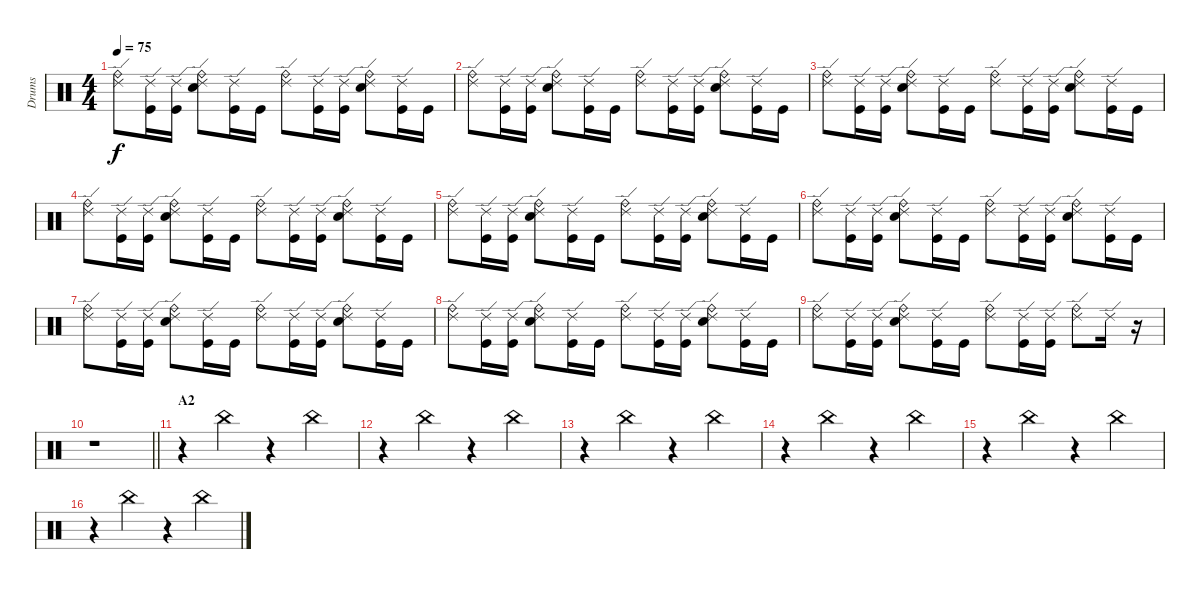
\track ("Drums" "Drums") {instrument percussion}
\staff {score}
\articulation defaults
\ts (4 4)
\tempo 75
\clef neutral
\ks c
("Ride (bell)" "Ride (edge) 2").8{dy f} ("Ride (edge) 2" "Kick (hit)").16 ("Ride (edge) 2" "Kick (hit)").16 ("Ride (bell)" "Ride (edge) 2" "Snare (hit) 2").8 ("Ride (edge) 2" "Kick (hit)").16 "Kick (hit)".16 ("Ride (bell)" "Ride (edge) 2").8 ("Ride (edge) 2" "Kick (hit)").16 ("Ride (edge) 2" "Kick (hit)").16 ("Ride (bell)" "Ride (edge) 2" "Snare (hit) 2").8 ("Ride (edge) 2" "Kick (hit)").16 "Kick (hit)".16 |
("Ride (bell)" "Ride (edge) 2").8 ("Ride (edge) 2" "Kick (hit)").16 ("Ride (edge) 2" "Kick (hit)").16 ("Ride (bell)" "Ride (edge) 2" "Snare (hit) 2").8 ("Ride (edge) 2" "Kick (hit)").16 "Kick (hit)".16 ("Ride (bell)" "Ride (edge) 2").8 ("Ride (edge) 2" "Kick (hit)").16 ("Ride (edge) 2" "Kick (hit)").16 ("Ride (bell)" "Ride (edge) 2" "Snare (hit) 2").8 ("Ride (edge) 2" "Kick (hit)").16 "Kick (hit)".16 |
("Ride (bell)" "Ride (edge) 2").8 ("Ride (edge) 2" "Kick (hit)").16 ("Ride (edge) 2" "Kick (hit)").16 ("Ride (bell)" "Ride (edge) 2" "Snare (hit) 2").8 ("Ride (edge) 2" "Kick (hit)").16 "Kick (hit)".16 ("Ride (bell)" "Ride (edge) 2").8 ("Ride (edge) 2" "Kick (hit)").16 ("Ride (edge) 2" "Kick (hit)").16 ("Ride (bell)" "Ride (edge) 2" "Snare (hit) 2").8 ("Ride (edge) 2" "Kick (hit)").16 "Kick (hit)".16 |
("Ride (bell)" "Ride (edge) 2").8 ("Ride (edge) 2" "Kick (hit)").16 ("Ride (edge) 2" "Kick (hit)").16 ("Ride (bell)" "Ride (edge) 2" "Snare (hit) 2").8 ("Ride (edge) 2" "Kick (hit)").16 "Kick (hit)".16 ("Ride (bell)" "Ride (edge) 2").8 ("Ride (edge) 2" "Kick (hit)").16 ("Ride (edge) 2" "Kick (hit)").16 ("Ride (bell)" "Ride (edge) 2" "Snare (hit) 2").8 ("Ride (edge) 2" "Kick (hit)").16 "Kick (hit)".16 |
("Ride (bell)" "Ride (edge) 2").8 ("Ride (edge) 2" "Kick (hit)").16 ("Ride (edge) 2" "Kick (hit)").16 ("Ride (bell)" "Ride (edge) 2" "Snare (hit) 2").8 ("Ride (edge) 2" "Kick (hit)").16 "Kick (hit)".16 ("Ride (bell)" "Ride (edge) 2").8 ("Ride (edge) 2" "Kick (hit)").16 ("Ride (edge) 2" "Kick (hit)").16 ("Ride (bell)" "Ride (edge) 2" "Snare (hit) 2").8 ("Ride (edge) 2" "Kick (hit)").16 "Kick (hit)".16 |
("Ride (bell)" "Ride (edge) 2").8 ("Ride (edge) 2" "Kick (hit)").16 ("Ride (edge) 2" "Kick (hit)").16 ("Ride (bell)" "Ride (edge) 2" "Snare (hit) 2").8 ("Ride (edge) 2" "Kick (hit)").16 "Kick (hit)".16 ("Ride (bell)" "Ride (edge) 2").8 ("Ride (edge) 2" "Kick (hit)").16 ("Ride (edge) 2" "Kick (hit)").16 ("Ride (bell)" "Ride (edge) 2" "Snare (hit) 2").8 ("Ride (edge) 2" "Kick (hit)").16 "Kick (hit)".16 |
("Ride (bell)" "Ride (edge) 2").8 ("Ride (edge) 2" "Kick (hit)").16 ("Ride (edge) 2" "Kick (hit)").16 ("Ride (bell)" "Ride (edge) 2" "Snare (hit) 2").8 ("Ride (edge) 2" "Kick (hit)").16 "Kick (hit)".16 ("Ride (bell)" "Ride (edge) 2").8 ("Ride (edge) 2" "Kick (hit)").16 ("Ride (edge) 2" "Kick (hit)").16 ("Ride (bell)" "Ride (edge) 2" "Snare (hit) 2").8 ("Ride (edge) 2" "Kick (hit)").16 "Kick (hit)".16 |
("Ride (bell)" "Ride (edge) 2").8 ("Ride (edge) 2" "Kick (hit)").16 ("Ride (edge) 2" "Kick (hit)").16 ("Ride (bell)" "Ride (edge) 2" "Snare (hit) 2").8 ("Ride (edge) 2" "Kick (hit)").16 "Kick (hit)".16 ("Ride (bell)" "Ride (edge) 2").8 ("Ride (edge) 2" "Kick (hit)").16 ("Ride (edge) 2" "Kick (hit)").16 ("Ride (bell)" "Ride (edge) 2" "Snare (hit) 2").8 ("Ride (edge) 2" "Kick (hit)").16 "Kick (hit)".16 |
("Ride (bell)" "Ride (edge) 2").8 ("Ride (edge) 2" "Kick (hit)").16 ("Ride (edge) 2" "Kick (hit)").16 ("Ride (bell)" "Ride (edge) 2" "Snare (hit) 2").8 ("Ride (edge) 2" "Kick (hit)").16 "Kick (hit)".16 ("Ride (bell)" "Ride (edge) 2").8 ("Ride (edge) 2" "Kick (hit)").16 ("Ride (edge) 2" "Kick (hit)").16 ("Ride (bell)" "Ride (edge) 2").8 "Ride (edge) 2".16 r.16 |
\barLineRight lightlight
r.1 |
\section ("" "A2")
r.4 "China (hit)".4 r.4 "China (hit)".4 |
r.4 "China (hit)".4 r.4 "China (hit)".4 |
r.4 "China (hit)".4 r.4 "China (hit)".4 |
r.4 "China (hit)".4 r.4 "China (hit)".4 |
r.4 "China (hit)".4 r.4 "China (hit)".4 |
r.4 "China (hit)".4 r.4 "China (hit)".4
